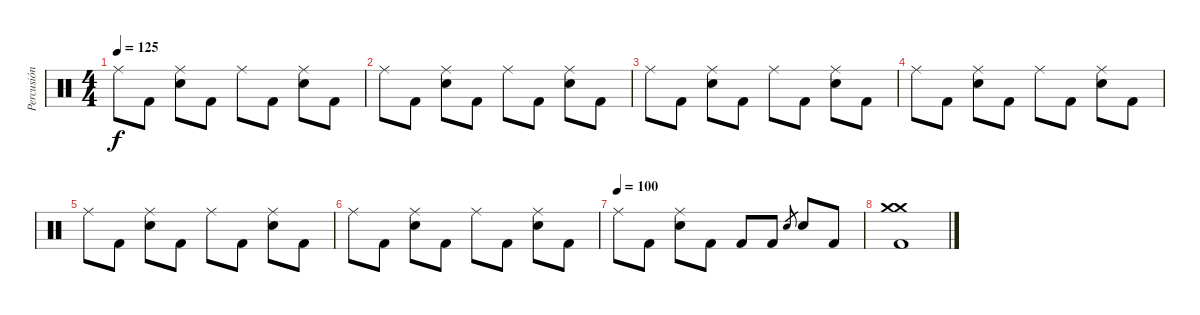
\track ("Percusión" "Percusión") {instrument percussion}
\staff {score}
\articulation defaults
\ts (4 4)
\tempo 125
\clef neutral
\ks c "Ride (middle)".8{dy f} "Kick (hit) 2".8
("Ride (middle)" "Electric Snare (hit)").8 "Kick (hit) 2".8 "Ride (middle)".8 "Kick (hit) 2".8 ("Ride (middle)" "Electric Snare (hit)").8 "Kick (hit) 2".8 |
"Ride (middle)".8 "Kick (hit) 2".8 ("Ride (middle)" "Electric Snare (hit)").8 "Kick (hit) 2".8 "Ride (middle)".8 "Kick (hit) 2".8 ("Ride (middle)" "Electric Snare (hit)").8 "Kick (hit) 2".8 |
"Ride (middle)".8 "Kick (hit) 2".8 ("Ride (middle)" "Electric Snare (hit)").8 "Kick (hit) 2".8 "Ride (middle)".8 "Kick (hit) 2".8 ("Ride (middle)" "Electric Snare (hit)").8 "Kick (hit) 2".8 |
"Ride (middle)".8 "Kick (hit) 2".8 ("Ride (middle)" "Electric Snare (hit)").8 "Kick (hit) 2".8 "Ride (middle)".8 "Kick (hit) 2".8 ("Ride (middle)" "Electric Snare (hit)").8 "Kick (hit) 2".8 |
"Ride (middle)".8 "Kick (hit) 2".8 ("Ride (middle)" "Electric Snare (hit)").8 "Kick (hit) 2".8 "Ride (middle)".8 "Kick (hit) 2".8 ("Ride (middle)" "Electric Snare (hit)").8 "Kick (hit) 2".8 |
"Ride (middle)".8 "Kick (hit) 2".8 ("Ride (middle)" "Electric Snare (hit)").8 "Kick (hit) 2".8 "Ride (middle)".8 "Kick (hit) 2".8 ("Ride (middle)" "Electric Snare (hit)").8 "Kick (hit) 2".8 |
\tempo (100)
"Ride (middle)".8 "Kick (hit) 2".8 ("Ride (middle)" "Electric Snare (hit)").8 "Kick (hit) 2".8 "Kick (hit) 2".8 "Kick (hit) 2".8 "Electric Snare (hit)".8{gr} "Electric Snare (hit)".8 "Kick (hit) 2".8 |
("Crash medium (hit)" "Crash medium (hit)" "Kick (hit) 2").1
